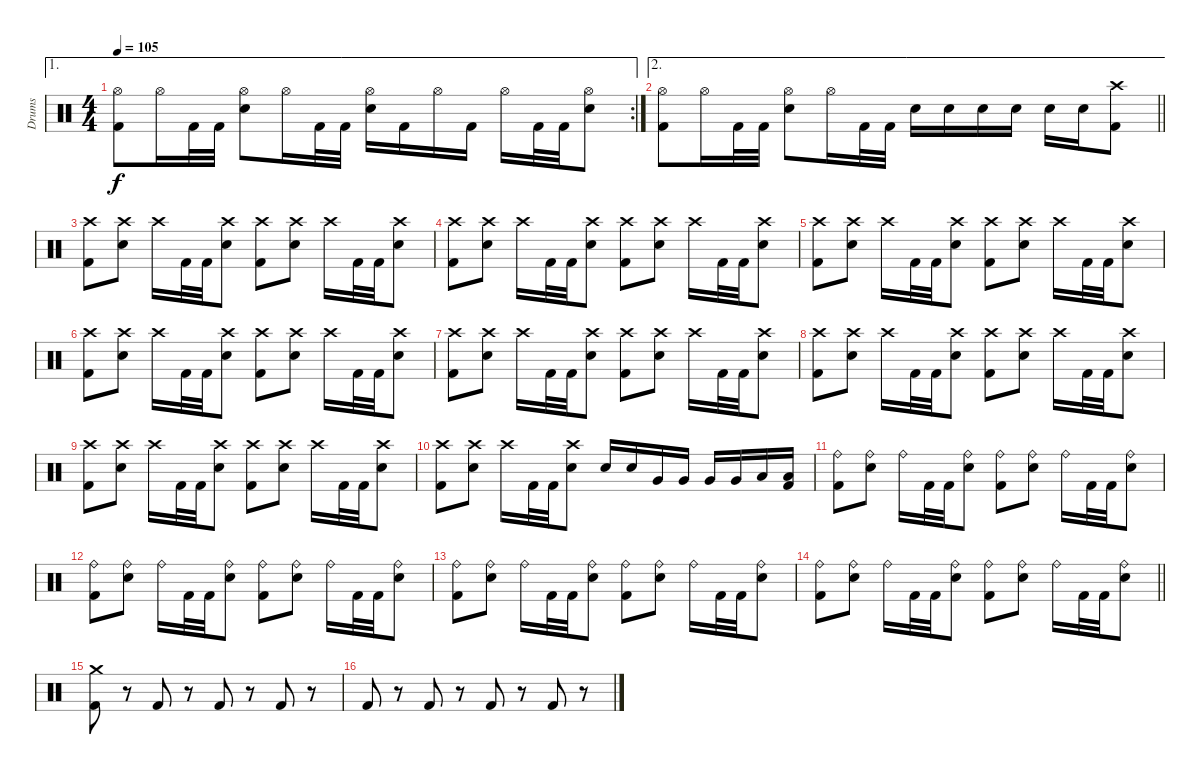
\track ("Drums" "Drums") {instrument percussion}
\staff {score}
\articulation defaults
\ae 1
\rc 2
\ts (4 4)
\tempo 105
\clef neutral
\ks c
("Hi-Hat (open)" "Kick (hit) 2").8{dy f} "Hi-Hat (open)".16 "Kick (hit) 2".32 "Kick (hit) 2".32 ("Hi-Hat (open)" "Snare (hit) 2").8 "Hi-Hat (open)".16 "Kick (hit) 2".32 "Kick (hit) 2".32 ("Hi-Hat (open)" "Snare (hit) 2").16 "Kick (hit) 2".16 "Hi-Hat (open)".16 "Kick (hit) 2".16 "Hi-Hat (open)".16 "Kick (hit) 2".32 "Kick (hit) 2".32 ("Hi-Hat (open)" "Snare (hit) 2").8 |
\ae 2
\barLineRight lightlight
("Hi-Hat (open)" "Kick (hit) 2").8 "Hi-Hat (open)".16 "Kick (hit) 2".32 "Kick (hit) 2".32 ("Hi-Hat (open)" "Snare (hit) 2").8 "Hi-Hat (open)".16 "Kick (hit) 2".32 "Kick (hit) 2".32 "Snare (hit) 2".16 "Snare (hit) 2".16 "Snare (hit) 2".16 "Snare (hit) 2".16 "Snare (hit) 2".16 "Snare (hit) 2".16 ("Crash high (hit)" "Kick (hit) 2").8 |
("Crash high (hit)" "Kick (hit) 2").8 ("Crash high (hit)" "Snare (hit) 2").8 "Crash high (hit)".16 "Kick (hit) 2".32 "Kick (hit) 2".32 ("Crash high (hit)" "Snare (hit) 2").8 ("Crash high (hit)" "Kick (hit) 2").8 ("Crash high (hit)" "Snare (hit) 2").8 "Crash high (hit)".16 "Kick (hit) 2".32 "Kick (hit) 2".32 ("Crash high (hit)" "Snare (hit) 2").8 |
("Crash high (hit)" "Kick (hit) 2").8 ("Crash high (hit)" "Snare (hit) 2").8 "Crash high (hit)".16 "Kick (hit) 2".32 "Kick (hit) 2".32 ("Crash high (hit)" "Snare (hit) 2").8 ("Crash high (hit)" "Kick (hit) 2").8 ("Crash high (hit)" "Snare (hit) 2").8 "Crash high (hit)".16 "Kick (hit) 2".32 "Kick (hit) 2".32 ("Crash high (hit)" "Snare (hit) 2").8 |
("Crash high (hit)" "Kick (hit) 2").8 ("Crash high (hit)" "Snare (hit) 2").8 "Crash high (hit)".16 "Kick (hit) 2".32 "Kick (hit) 2".32 ("Crash high (hit)" "Snare (hit) 2").8 ("Crash high (hit)" "Kick (hit) 2").8 ("Crash high (hit)" "Snare (hit) 2").8 "Crash high (hit)".16 "Kick (hit) 2".32 "Kick (hit) 2".32 ("Crash high (hit)" "Snare (hit) 2").8 |
("Crash high (hit)" "Kick (hit) 2").8 ("Crash high (hit)" "Snare (hit) 2").8 "Crash high (hit)".16 "Kick (hit) 2".32 "Kick (hit) 2".32 ("Crash high (hit)" "Snare (hit) 2").8 ("Crash high (hit)" "Kick (hit) 2").8 ("Crash high (hit)" "Snare (hit) 2").8 "Crash high (hit)".16 "Kick (hit) 2".32 "Kick (hit) 2".32 ("Crash high (hit)" "Snare (hit) 2").8 |
("Crash high (hit)" "Kick (hit) 2").8 ("Crash high (hit)" "Snare (hit) 2").8 "Crash high (hit)".16 "Kick (hit) 2".32 "Kick (hit) 2".32 ("Crash high (hit)" "Snare (hit) 2").8 ("Crash high (hit)" "Kick (hit) 2").8 ("Crash high (hit)" "Snare (hit) 2").8 "Crash high (hit)".16 "Kick (hit) 2".32 "Kick (hit) 2".32 ("Crash high (hit)" "Snare (hit) 2").8 |
("Crash high (hit)" "Kick (hit) 2").8 ("Crash high (hit)" "Snare (hit) 2").8 "Crash high (hit)".16 "Kick (hit) 2".32 "Kick (hit) 2".32 ("Crash high (hit)" "Snare (hit) 2").8 ("Crash high (hit)" "Kick (hit) 2").8 ("Crash high (hit)" "Snare (hit) 2").8 "Crash high (hit)".16 "Kick (hit) 2".32 "Kick (hit) 2".32 ("Crash high (hit)" "Snare (hit) 2").8 |
("Crash high (hit)" "Kick (hit) 2").8 ("Crash high (hit)" "Snare (hit) 2").8 "Crash high (hit)".16 "Kick (hit) 2".32 "Kick (hit) 2".32 ("Crash high (hit)" "Snare (hit) 2").8 ("Crash high (hit)" "Kick (hit) 2").8 ("Crash high (hit)" "Snare (hit) 2").8 "Crash high (hit)".16 "Kick (hit) 2".32 "Kick (hit) 2".32 ("Crash high (hit)" "Snare (hit) 2").8 |
("Crash high (hit)" "Kick (hit) 2").8 ("Crash high (hit)" "Snare (hit) 2").8 "Crash high (hit)".16 "Kick (hit) 2".32 "Kick (hit) 2".32 ("Crash high (hit)" "Snare (hit) 2").8 "Snare (hit) 2".16 "Snare (hit) 2".16 "Very Low Tom (hit)".16 "Very Low Tom (hit)".16 "Very Low Tom (hit)".16 "Very Low Tom (hit)".16 "Low Floor Tom (hit)".16 ("Low Floor Tom (hit)" "Kick (hit) 2").16 |
("Ride (bell)" "Kick (hit) 2").8 ("Ride (bell)" "Snare (hit) 2").8 "Ride (bell)".16 "Kick (hit) 2".32 "Kick (hit) 2".32 ("Ride (bell)" "Snare (hit) 2").8 ("Ride (bell)" "Kick (hit) 2").8 ("Ride (bell)" "Snare (hit) 2").8 "Ride (bell)".16 "Kick (hit) 2".32 "Kick (hit) 2".32 ("Ride (bell)" "Snare (hit) 2").8 |
("Ride (bell)" "Kick (hit) 2").8 ("Ride (bell)" "Snare (hit) 2").8 "Ride (bell)".16 "Kick (hit) 2".32 "Kick (hit) 2".32 ("Ride (bell)" "Snare (hit) 2").8 ("Ride (bell)" "Kick (hit) 2").8 ("Ride (bell)" "Snare (hit) 2").8 "Ride (bell)".16 "Kick (hit) 2".32 "Kick (hit) 2".32 ("Ride (bell)" "Snare (hit) 2").8 |
("Ride (bell)" "Kick (hit) 2").8 ("Ride (bell)" "Snare (hit) 2").8 "Ride (bell)".16 "Kick (hit) 2".32 "Kick (hit) 2".32 ("Ride (bell)" "Snare (hit) 2").8 ("Ride (bell)" "Kick (hit) 2").8 ("Ride (bell)" "Snare (hit) 2").8 "Ride (bell)".16 "Kick (hit) 2".32 "Kick (hit) 2".32 ("Ride (bell)" "Snare (hit) 2").8 |
\barLineRight lightlight
("Ride (bell)" "Kick (hit) 2").8 ("Ride (bell)" "Snare (hit) 2").8 "Ride (bell)".16 "Kick (hit) 2".32 "Kick (hit) 2".32 ("Ride (bell)" "Snare (hit) 2").8 ("Ride (bell)" "Kick (hit) 2").8 ("Ride (bell)" "Snare (hit) 2").8 "Ride (bell)".16 "Kick (hit) 2".32 "Kick (hit) 2".32 ("Ride (bell)" "Snare (hit) 2").8 |
("Crash medium (hit)" "Kick (hit) 2").8 r.8 "Kick (hit) 2".8 r.8 "Kick (hit) 2".8 r.8 "Kick (hit) 2".8 r.8 |
"Kick (hit) 2".8 r.8 "Kick (hit) 2".8 r.8 "Kick (hit) 2".8 r.8 "Kick (hit) 2".8 r.8
